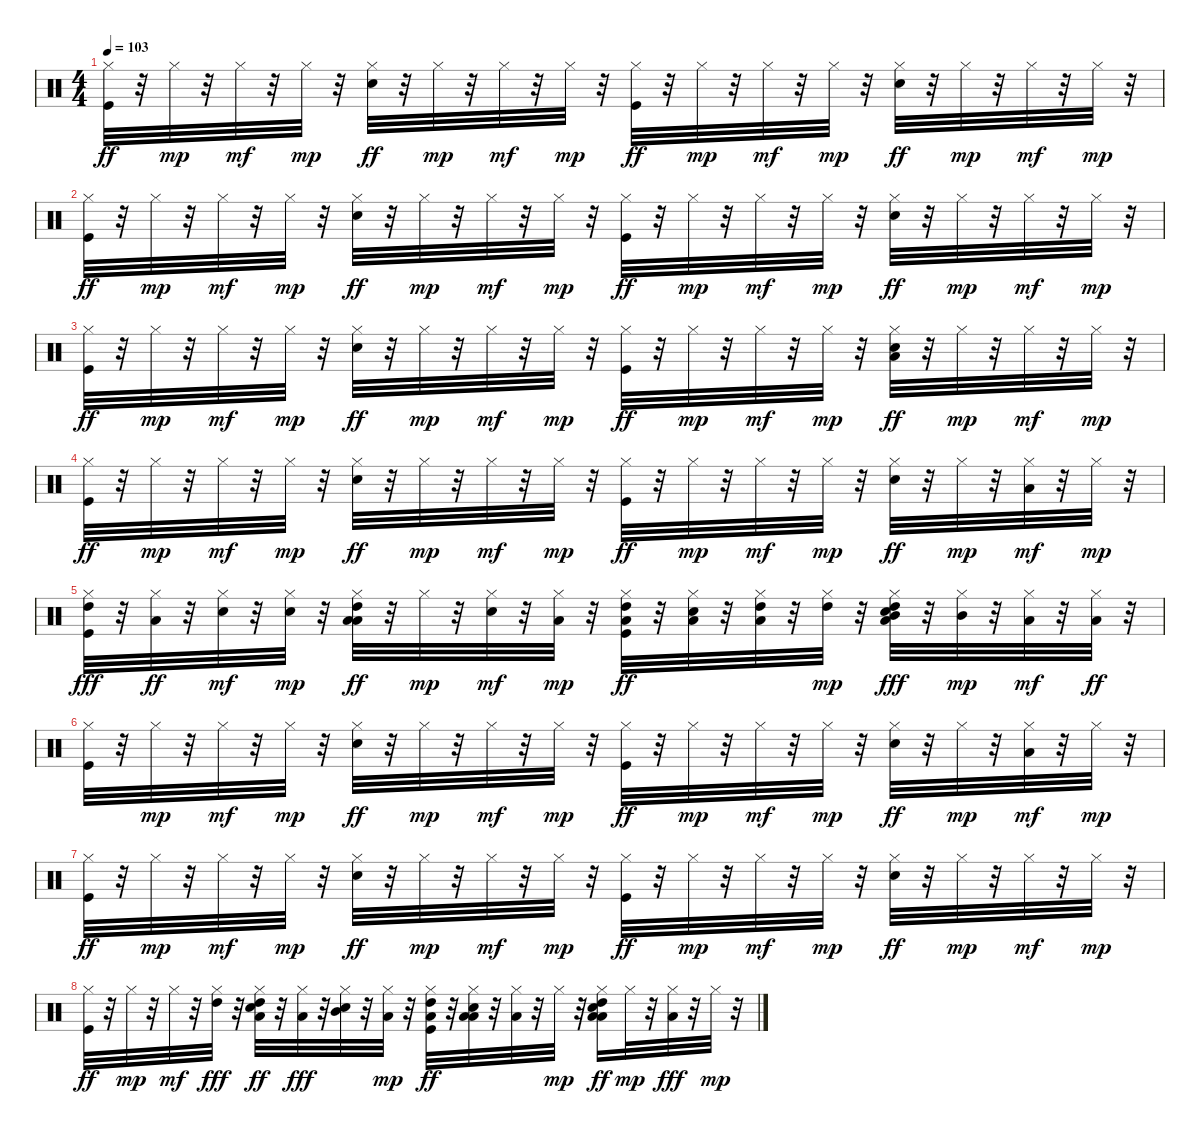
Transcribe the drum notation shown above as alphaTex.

\track "" {instrument percussion}
\staff {score}
\articulation defaults
\ts (4 4)
\tempo 103
\clef neutral
\ks c
("Kick (hit)" "Hi-Hat (closed)").32{dy ff} r.32 "Hi-Hat (closed)".32{dy mp} r.32 "Hi-Hat (closed)".32{dy mf} r.32 "Hi-Hat (closed)".32{dy mp} r.32 ("Snare (hit) 2" "Hi-Hat (closed)").32{dy ff} r.32 "Hi-Hat (closed)".32{dy mp} r.32 "Hi-Hat (closed)".32{dy mf} r.32 "Hi-Hat (closed)".32{dy mp} r.32 ("Kick (hit)" "Hi-Hat (closed)").32{dy ff} r.32 "Hi-Hat (closed)".32{dy mp} r.32 "Hi-Hat (closed)".32{dy mf} r.32 "Hi-Hat (closed)".32{dy mp} r.32 ("Snare (hit) 2" "Hi-Hat (closed)").32{dy ff} r.32 "Hi-Hat (closed)".32{dy mp} r.32 "Hi-Hat (closed)".32{dy mf} r.32 "Hi-Hat (closed)".32{dy mp} r.32 |
("Kick (hit)" "Hi-Hat (closed)").32{dy ff} r.32 "Hi-Hat (closed)".32{dy mp} r.32 "Hi-Hat (closed)".32{dy mf} r.32 "Hi-Hat (closed)".32{dy mp} r.32 ("Snare (hit) 2" "Hi-Hat (closed)").32{dy ff} r.32 "Hi-Hat (closed)".32{dy mp} r.32 "Hi-Hat (closed)".32{dy mf} r.32 "Hi-Hat (closed)".32{dy mp} r.32 ("Kick (hit)" "Hi-Hat (closed)").32{dy ff} r.32 "Hi-Hat (closed)".32{dy mp} r.32 "Hi-Hat (closed)".32{dy mf} r.32 "Hi-Hat (closed)".32{dy mp} r.32 ("Snare (hit) 2" "Hi-Hat (closed)").32{dy ff} r.32 "Hi-Hat (closed)".32{dy mp} r.32 "Hi-Hat (closed)".32{dy mf} r.32 "Hi-Hat (closed)".32{dy mp} r.32 |
("Kick (hit)" "Hi-Hat (closed)").32{dy ff} r.32 "Hi-Hat (closed)".32{dy mp} r.32 "Hi-Hat (closed)".32{dy mf} r.32 "Hi-Hat (closed)".32{dy mp} r.32 ("Snare (hit) 2" "Hi-Hat (closed)").32{dy ff} r.32 "Hi-Hat (closed)".32{dy mp} r.32 "Hi-Hat (closed)".32{dy mf} r.32 "Hi-Hat (closed)".32{dy mp} r.32 ("Kick (hit)" "Hi-Hat (closed)").32{dy ff} r.32 "Hi-Hat (closed)".32{dy mp} r.32 "Hi-Hat (closed)".32{dy mf} r.32 "Hi-Hat (closed)".32{dy mp} r.32 ("Snare (hit) 2" "Hi-Hat (closed)" "Low Floor Tom (hit)").32{dy ff} r.32 "Hi-Hat (closed)".32{dy mp} r.32 "Hi-Hat (closed)".32{dy mf} r.32 "Hi-Hat (closed)".32{dy mp} r.32 |
("Kick (hit)" "Hi-Hat (closed)").32{dy ff} r.32 "Hi-Hat (closed)".32{dy mp} r.32 "Hi-Hat (closed)".32{dy mf} r.32 "Hi-Hat (closed)".32{dy mp} r.32 ("Snare (hit) 2" "Hi-Hat (closed)").32{dy ff} r.32 "Hi-Hat (closed)".32{dy mp} r.32 "Hi-Hat (closed)".32{dy mf} r.32 "Hi-Hat (closed)".32{dy mp} r.32 ("Kick (hit)" "Hi-Hat (closed)").32{dy ff} r.32 "Hi-Hat (closed)".32{dy mp} r.32 "Hi-Hat (closed)".32{dy mf} r.32 "Hi-Hat (closed)".32{dy mp} r.32 ("Snare (hit) 2" "Hi-Hat (closed)").32{dy ff} r.32 "Hi-Hat (closed)".32{dy mp} r.32 ("Hi-Hat (closed)" "Low Floor Tom (hit)").32{dy mf} r.32 "Hi-Hat (closed)".32{dy mp} r.32 |
("Kick (hit)" "Hi-Hat (closed)" "High Tom (hit)").32{dy fff} r.32 ("Hi-Hat (closed)" "Low Tom (hit)").32{dy ff} r.32 ("Snare (hit) 2" "Hi-Hat (closed)").32{dy mf} r.32 ("Snare (hit) 2" "Hi-Hat (closed)").32{dy mp} r.32 ("Hi-Hat (closed)" "High Tom (hit)" "Low Tom (hit)" "Low Floor Tom (hit)").32{dy ff} r.32 "Hi-Hat (closed)".32{dy mp} r.32 ("Snare (hit) 2" "Hi-Hat (closed)").32{dy mf} r.32 ("Hi-Hat (closed)" "Low Tom (hit)").32{dy mp} r.32 ("Kick (hit)" "Hi-Hat (closed)" "High Tom (hit)" "Low Tom (hit)").32{dy ff} r.32 ("Snare (hit) 2" "Hi-Hat (closed)" "Low Floor Tom (hit)").32 r.32 ("Hi-Hat (closed)" "Low Tom (hit)" "High Tom (hit)").32 r.32 ("Hi-Hat (closed)" "High Tom (hit)").32{dy mp} r.32 ("Snare (hit) 2" "Hi-Hat (closed)" "High Tom (hit)" "Low Floor Tom (hit)" "Mid Tom (hit)").32{dy fff} r.32 ("Hi-Hat (closed)" "Mid Tom (hit)").32{dy mp} r.32 ("Hi-Hat (closed)" "Low Floor Tom (hit)").32{dy mf} r.32 ("Hi-Hat (closed)" "Low Floor Tom (hit)").32{dy ff} r.32 |
("Kick (hit)" "Hi-Hat (closed)").32 r.32 "Hi-Hat (closed)".32{dy mp} r.32 "Hi-Hat (closed)".32{dy mf} r.32 "Hi-Hat (closed)".32{dy mp} r.32 ("Snare (hit) 2" "Hi-Hat (closed)").32{dy ff} r.32 "Hi-Hat (closed)".32{dy mp} r.32 "Hi-Hat (closed)".32{dy mf} r.32 "Hi-Hat (closed)".32{dy mp} r.32 ("Kick (hit)" "Hi-Hat (closed)").32{dy ff} r.32 "Hi-Hat (closed)".32{dy mp} r.32 "Hi-Hat (closed)".32{dy mf} r.32 "Hi-Hat (closed)".32{dy mp} r.32 ("Snare (hit) 2" "Hi-Hat (closed)").32{dy ff} r.32 "Hi-Hat (closed)".32{dy mp} r.32 ("Hi-Hat (closed)" "Low Tom (hit)").32{dy mf} r.32 "Hi-Hat (closed)".32{dy mp} r.32 |
("Kick (hit)" "Hi-Hat (closed)").32{dy ff} r.32 "Hi-Hat (closed)".32{dy mp} r.32 "Hi-Hat (closed)".32{dy mf} r.32 "Hi-Hat (closed)".32{dy mp} r.32 ("Snare (hit) 2" "Hi-Hat (closed)").32{dy ff} r.32 "Hi-Hat (closed)".32{dy mp} r.32 "Hi-Hat (closed)".32{dy mf} r.32 "Hi-Hat (closed)".32{dy mp} r.32 ("Kick (hit)" "Hi-Hat (closed)").32{dy ff} r.32 "Hi-Hat (closed)".32{dy mp} r.32 "Hi-Hat (closed)".32{dy mf} r.32 "Hi-Hat (closed)".32{dy mp} r.32 ("Snare (hit) 2" "Hi-Hat (closed)").32{dy ff} r.32 "Hi-Hat (closed)".32{dy mp} r.32 "Hi-Hat (closed)".32{dy mf} r.32 "Hi-Hat (closed)".32{dy mp} r.32 |
("Kick (hit)" "Hi-Hat (closed)").32{dy ff} r.32 "Hi-Hat (closed)".32{dy mp} r.32 "Hi-Hat (closed)".32{dy mf} r.32 ("Hi-Hat (closed)" "High Tom (hit)").32{dy fff} r.32 ("Snare (hit) 2" "Hi-Hat (closed)" "High Tom (hit)" "Low Floor Tom (hit)").32{dy ff} r.32 ("Hi-Hat (closed)" "Low Tom (hit)").32{dy fff} r.32 ("Snare (hit) 2" "Hi-Hat (closed)" "Mid Tom (hit)").32 r.32 ("Hi-Hat (closed)" "Low Tom (hit)").32{dy mp} r.32 ("Kick (hit)" "Hi-Hat (closed)" "High Tom (hit)" "Low Tom (hit)").32{dy ff} r.32 ("Snare (hit) 2" "Hi-Hat (closed)" "Low Floor Tom (hit)" "Low Tom (hit)").32 r.32 ("Hi-Hat (closed)" "Low Tom (hit)").32 r.32 "Hi-Hat (closed)".32{dy mp} r.32 ("Snare (hit) 2" "Hi-Hat (closed)" "High Tom (hit)" "Low Floor Tom (hit)" "Low Floor Tom (hit)").16{dy ff} "Hi-Hat (closed)".32{dy mp} r.32 ("Hi-Hat (closed)" "Low Floor Tom (hit)").32{dy fff} r.32 "Hi-Hat (closed)".32{dy mp} r.32
